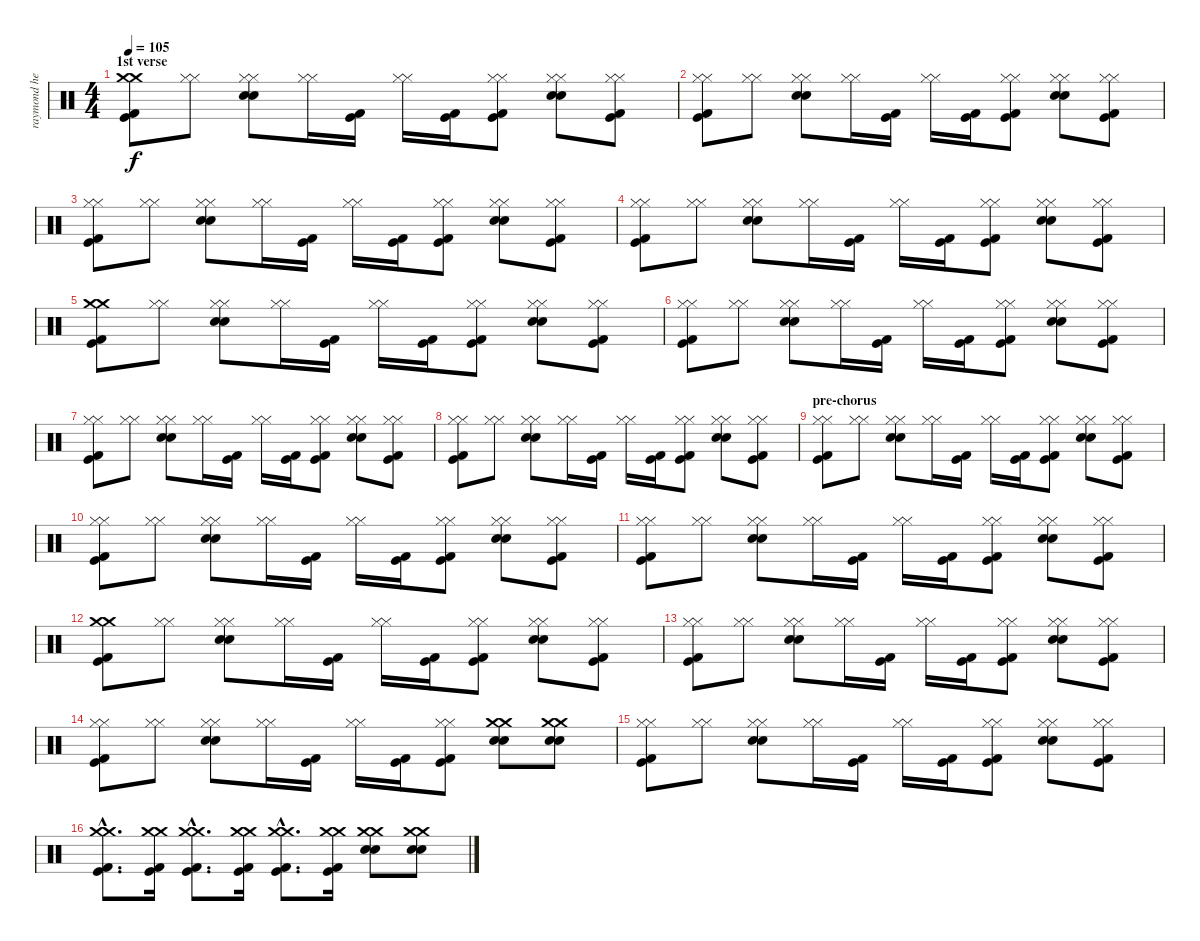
\track ("raymond herrea" "raymond he") {instrument percussion}
\staff {score}
\articulation defaults
\ts (4 4)
\section ("" "1st verse")
\tempo 105
\clef neutral
\ks c
("Crash medium (hit)" "Crash medium (hit)" "Kick (hit)" "Kick (hit) 2").8{dy f} ("Hi-Hat (closed)" "Hi-Hat (closed)").8 ("Hi-Hat (closed)" "Hi-Hat (closed)" "Snare (hit) 2" "Electric Snare (hit)").8 ("Hi-Hat (closed)" "Hi-Hat (closed)").16 ("Kick (hit)" "Kick (hit) 2").16 ("Hi-Hat (closed)" "Hi-Hat (closed)").16 ("Kick (hit)" "Kick (hit) 2").16 ("Hi-Hat (closed)" "Hi-Hat (closed)" "Kick (hit)" "Kick (hit) 2").8 ("Hi-Hat (closed)" "Hi-Hat (closed)" "Snare (hit) 2" "Electric Snare (hit)").8 ("Hi-Hat (closed)" "Hi-Hat (closed)" "Kick (hit)" "Kick (hit) 2").8 |
("Hi-Hat (closed)" "Hi-Hat (closed)" "Kick (hit)" "Kick (hit) 2").8 ("Hi-Hat (closed)" "Hi-Hat (closed)").8 ("Hi-Hat (closed)" "Hi-Hat (closed)" "Snare (hit) 2" "Electric Snare (hit)").8 ("Hi-Hat (closed)" "Hi-Hat (closed)").16 ("Kick (hit)" "Kick (hit) 2").16 ("Hi-Hat (closed)" "Hi-Hat (closed)").16 ("Kick (hit)" "Kick (hit) 2").16 ("Hi-Hat (closed)" "Hi-Hat (closed)" "Kick (hit)" "Kick (hit) 2").8 ("Hi-Hat (closed)" "Hi-Hat (closed)" "Snare (hit) 2" "Electric Snare (hit)").8 ("Hi-Hat (closed)" "Hi-Hat (closed)" "Kick (hit)" "Kick (hit) 2").8 |
("Hi-Hat (closed)" "Hi-Hat (closed)" "Kick (hit)" "Kick (hit) 2").8 ("Hi-Hat (closed)" "Hi-Hat (closed)").8 ("Hi-Hat (closed)" "Hi-Hat (closed)" "Snare (hit) 2" "Electric Snare (hit)").8 ("Hi-Hat (closed)" "Hi-Hat (closed)").16 ("Kick (hit)" "Kick (hit) 2").16 ("Hi-Hat (closed)" "Hi-Hat (closed)").16 ("Kick (hit)" "Kick (hit) 2").16 ("Hi-Hat (closed)" "Hi-Hat (closed)" "Kick (hit)" "Kick (hit) 2").8 ("Hi-Hat (closed)" "Hi-Hat (closed)" "Snare (hit) 2" "Electric Snare (hit)").8 ("Hi-Hat (closed)" "Hi-Hat (closed)" "Kick (hit)" "Kick (hit) 2").8 |
("Hi-Hat (closed)" "Hi-Hat (closed)" "Kick (hit)" "Kick (hit) 2").8 ("Hi-Hat (closed)" "Hi-Hat (closed)").8 ("Hi-Hat (closed)" "Hi-Hat (closed)" "Snare (hit) 2" "Electric Snare (hit)").8 ("Hi-Hat (closed)" "Hi-Hat (closed)").16 ("Kick (hit)" "Kick (hit) 2").16 ("Hi-Hat (closed)" "Hi-Hat (closed)").16 ("Kick (hit)" "Kick (hit) 2").16 ("Hi-Hat (closed)" "Hi-Hat (closed)" "Kick (hit)" "Kick (hit) 2").8 ("Hi-Hat (closed)" "Hi-Hat (closed)" "Snare (hit) 2" "Electric Snare (hit)").8 ("Hi-Hat (closed)" "Hi-Hat (closed)" "Kick (hit)" "Kick (hit) 2").8 |
("Crash medium (hit)" "Crash medium (hit)" "Kick (hit)" "Kick (hit) 2").8 ("Hi-Hat (closed)" "Hi-Hat (closed)").8 ("Hi-Hat (closed)" "Hi-Hat (closed)" "Snare (hit) 2" "Electric Snare (hit)").8 ("Hi-Hat (closed)" "Hi-Hat (closed)").16 ("Kick (hit)" "Kick (hit) 2").16 ("Hi-Hat (closed)" "Hi-Hat (closed)").16 ("Kick (hit)" "Kick (hit) 2").16 ("Hi-Hat (closed)" "Hi-Hat (closed)" "Kick (hit)" "Kick (hit) 2").8 ("Hi-Hat (closed)" "Hi-Hat (closed)" "Snare (hit) 2" "Electric Snare (hit)").8 ("Hi-Hat (closed)" "Hi-Hat (closed)" "Kick (hit)" "Kick (hit) 2").8 |
("Hi-Hat (closed)" "Hi-Hat (closed)" "Kick (hit)" "Kick (hit) 2").8 ("Hi-Hat (closed)" "Hi-Hat (closed)").8 ("Hi-Hat (closed)" "Hi-Hat (closed)" "Snare (hit) 2" "Electric Snare (hit)").8 ("Hi-Hat (closed)" "Hi-Hat (closed)").16 ("Kick (hit)" "Kick (hit) 2").16 ("Hi-Hat (closed)" "Hi-Hat (closed)").16 ("Kick (hit)" "Kick (hit) 2").16 ("Hi-Hat (closed)" "Hi-Hat (closed)" "Kick (hit)" "Kick (hit) 2").8 ("Hi-Hat (closed)" "Hi-Hat (closed)" "Snare (hit) 2" "Electric Snare (hit)").8 ("Hi-Hat (closed)" "Hi-Hat (closed)" "Kick (hit)" "Kick (hit) 2").8 |
("Hi-Hat (closed)" "Hi-Hat (closed)" "Kick (hit)" "Kick (hit) 2").8 ("Hi-Hat (closed)" "Hi-Hat (closed)").8 ("Hi-Hat (closed)" "Hi-Hat (closed)" "Snare (hit) 2" "Electric Snare (hit)").8 ("Hi-Hat (closed)" "Hi-Hat (closed)").16 ("Kick (hit)" "Kick (hit) 2").16 ("Hi-Hat (closed)" "Hi-Hat (closed)").16 ("Kick (hit)" "Kick (hit) 2").16 ("Hi-Hat (closed)" "Hi-Hat (closed)" "Kick (hit)" "Kick (hit) 2").8 ("Hi-Hat (closed)" "Hi-Hat (closed)" "Snare (hit) 2" "Electric Snare (hit)").8 ("Hi-Hat (closed)" "Hi-Hat (closed)" "Kick (hit)" "Kick (hit) 2").8 |
("Hi-Hat (closed)" "Hi-Hat (closed)" "Kick (hit)" "Kick (hit) 2").8 ("Hi-Hat (closed)" "Hi-Hat (closed)").8 ("Hi-Hat (closed)" "Hi-Hat (closed)" "Snare (hit) 2" "Electric Snare (hit)").8 ("Hi-Hat (closed)" "Hi-Hat (closed)").16 ("Kick (hit)" "Kick (hit) 2").16 ("Hi-Hat (closed)" "Hi-Hat (closed)").16 ("Kick (hit)" "Kick (hit) 2").16 ("Hi-Hat (closed)" "Hi-Hat (closed)" "Kick (hit)" "Kick (hit) 2").8 ("Hi-Hat (closed)" "Hi-Hat (closed)" "Snare (hit) 2" "Electric Snare (hit)").8 ("Hi-Hat (closed)" "Hi-Hat (closed)" "Kick (hit)" "Kick (hit) 2").8 |
\section ("" "pre-chorus")
("Hi-Hat (closed)" "Hi-Hat (closed)" "Kick (hit)" "Kick (hit) 2").8 ("Hi-Hat (closed)" "Hi-Hat (closed)").8 ("Hi-Hat (closed)" "Hi-Hat (closed)" "Snare (hit) 2" "Electric Snare (hit)").8 ("Hi-Hat (closed)" "Hi-Hat (closed)").16 ("Kick (hit)" "Kick (hit) 2").16 ("Hi-Hat (closed)" "Hi-Hat (closed)").16 ("Kick (hit)" "Kick (hit) 2").16 ("Hi-Hat (closed)" "Hi-Hat (closed)" "Kick (hit)" "Kick (hit) 2").8 ("Hi-Hat (closed)" "Hi-Hat (closed)" "Snare (hit) 2" "Electric Snare (hit)").8 ("Hi-Hat (closed)" "Hi-Hat (closed)" "Kick (hit)" "Kick (hit) 2").8 |
("Hi-Hat (closed)" "Hi-Hat (closed)" "Kick (hit)" "Kick (hit) 2").8 ("Hi-Hat (closed)" "Hi-Hat (closed)").8 ("Hi-Hat (closed)" "Hi-Hat (closed)" "Snare (hit) 2" "Electric Snare (hit)").8 ("Hi-Hat (closed)" "Hi-Hat (closed)").16 ("Kick (hit)" "Kick (hit) 2").16 ("Hi-Hat (closed)" "Hi-Hat (closed)").16 ("Kick (hit)" "Kick (hit) 2").16 ("Hi-Hat (closed)" "Hi-Hat (closed)" "Kick (hit)" "Kick (hit) 2").8 ("Hi-Hat (closed)" "Hi-Hat (closed)" "Snare (hit) 2" "Electric Snare (hit)").8 ("Hi-Hat (closed)" "Hi-Hat (closed)" "Kick (hit)" "Kick (hit) 2").8 |
("Hi-Hat (closed)" "Hi-Hat (closed)" "Kick (hit)" "Kick (hit) 2").8 ("Hi-Hat (closed)" "Hi-Hat (closed)").8 ("Hi-Hat (closed)" "Hi-Hat (closed)" "Snare (hit) 2" "Electric Snare (hit)").8 ("Hi-Hat (closed)" "Hi-Hat (closed)").16 ("Kick (hit)" "Kick (hit) 2").16 ("Hi-Hat (closed)" "Hi-Hat (closed)").16 ("Kick (hit)" "Kick (hit) 2").16 ("Hi-Hat (closed)" "Hi-Hat (closed)" "Kick (hit)" "Kick (hit) 2").8 ("Hi-Hat (closed)" "Hi-Hat (closed)" "Snare (hit) 2" "Electric Snare (hit)").8 ("Hi-Hat (closed)" "Hi-Hat (closed)" "Kick (hit)" "Kick (hit) 2").8 |
("Crash medium (hit)" "Crash medium (hit)" "Kick (hit)" "Kick (hit) 2").8 ("Hi-Hat (closed)" "Hi-Hat (closed)").8 ("Hi-Hat (closed)" "Hi-Hat (closed)" "Snare (hit) 2" "Electric Snare (hit)").8 ("Hi-Hat (closed)" "Hi-Hat (closed)").16 ("Kick (hit)" "Kick (hit) 2").16 ("Hi-Hat (closed)" "Hi-Hat (closed)").16 ("Kick (hit)" "Kick (hit) 2").16 ("Hi-Hat (closed)" "Hi-Hat (closed)" "Kick (hit)" "Kick (hit) 2").8 ("Hi-Hat (closed)" "Hi-Hat (closed)" "Snare (hit) 2" "Electric Snare (hit)").8 ("Hi-Hat (closed)" "Hi-Hat (closed)" "Kick (hit)" "Kick (hit) 2").8 |
("Hi-Hat (closed)" "Hi-Hat (closed)" "Kick (hit)" "Kick (hit) 2").8 ("Hi-Hat (closed)" "Hi-Hat (closed)").8 ("Hi-Hat (closed)" "Hi-Hat (closed)" "Snare (hit) 2" "Electric Snare (hit)").8 ("Hi-Hat (closed)" "Hi-Hat (closed)").16 ("Kick (hit)" "Kick (hit) 2").16 ("Hi-Hat (closed)" "Hi-Hat (closed)").16 ("Kick (hit)" "Kick (hit) 2").16 ("Hi-Hat (closed)" "Hi-Hat (closed)" "Kick (hit)" "Kick (hit) 2").8 ("Hi-Hat (closed)" "Hi-Hat (closed)" "Snare (hit) 2" "Electric Snare (hit)").8 ("Hi-Hat (closed)" "Hi-Hat (closed)" "Kick (hit)" "Kick (hit) 2").8 |
("Hi-Hat (closed)" "Hi-Hat (closed)" "Kick (hit)" "Kick (hit) 2").8 ("Hi-Hat (closed)" "Hi-Hat (closed)").8 ("Hi-Hat (closed)" "Hi-Hat (closed)" "Snare (hit) 2" "Electric Snare (hit)").8 ("Hi-Hat (closed)" "Hi-Hat (closed)").16 ("Kick (hit)" "Kick (hit) 2").16 ("Hi-Hat (closed)" "Hi-Hat (closed)").16 ("Kick (hit)" "Kick (hit) 2").16 ("Hi-Hat (closed)" "Hi-Hat (closed)" "Kick (hit)" "Kick (hit) 2").8 ("Crash medium (hit)" "Crash medium (hit)" "Snare (hit) 2" "Electric Snare (hit)").8 ("Crash medium (hit)" "Crash medium (hit)" "Snare (hit) 2" "Electric Snare (hit)").8 |
("Hi-Hat (closed)" "Hi-Hat (closed)" "Kick (hit)" "Kick (hit) 2").8 ("Hi-Hat (closed)" "Hi-Hat (closed)").8 ("Hi-Hat (closed)" "Hi-Hat (closed)" "Snare (hit) 2" "Electric Snare (hit)").8 ("Hi-Hat (closed)" "Hi-Hat (closed)").16 ("Kick (hit)" "Kick (hit) 2").16 ("Hi-Hat (closed)" "Hi-Hat (closed)").16 ("Kick (hit)" "Kick (hit) 2").16 ("Hi-Hat (closed)" "Hi-Hat (closed)" "Kick (hit)" "Kick (hit) 2").8 ("Hi-Hat (closed)" "Hi-Hat (closed)" "Snare (hit) 2" "Electric Snare (hit)").8 ("Hi-Hat (closed)" "Hi-Hat (closed)" "Kick (hit)" "Kick (hit) 2").8 |
("Crash medium (hit)"{hac} "Crash medium (hit)"{hac} "Kick (hit)"{hac} "Kick (hit) 2"{hac}).8{d} ("Crash medium (hit)" "Crash medium (hit)" "Kick (hit)" "Kick (hit) 2").16 ("Crash medium (hit)"{hac} "Crash medium (hit)"{hac} "Kick (hit)"{hac} "Kick (hit) 2"{hac}).8{d} ("Crash medium (hit)" "Crash medium (hit)" "Kick (hit)" "Kick (hit) 2").16 ("Crash medium (hit)"{hac} "Crash medium (hit)"{hac} "Kick (hit)"{hac} "Kick (hit) 2"{hac}).8{d} ("Crash medium (hit)" "Crash medium (hit)" "Kick (hit)" "Kick (hit) 2").16 ("Crash medium (hit)" "Crash medium (hit)" "Electric Snare (hit)" "Snare (hit) 2").8 ("Crash medium (hit)" "Crash medium (hit)" "Electric Snare (hit)" "Snare (hit) 2").8
